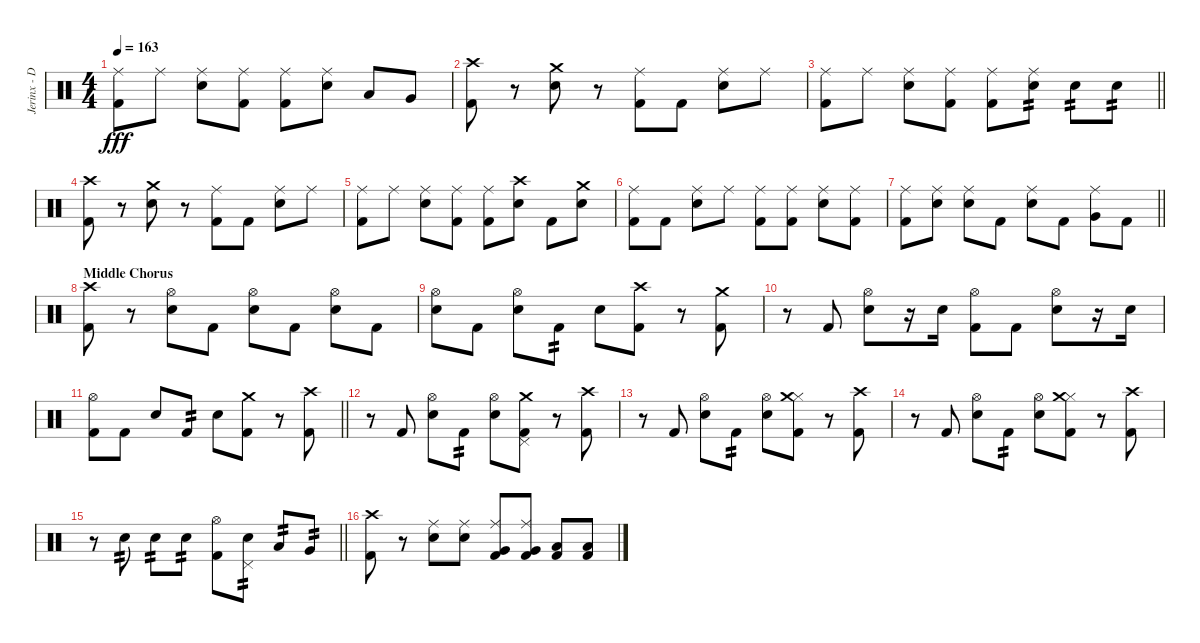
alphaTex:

\track ("Jerinx - Drum" "Jerinx - D") {instrument percussion}
\staff {score}
\articulation defaults
\ts (4 4)
\tempo 163
\clef neutral
\ks c
("Kick (hit) 2" "Ride (middle)").8{dy fff} "Ride (middle)".8 ("Snare (hit) 2" "Ride (middle)").8 ("Kick (hit) 2" "Ride (middle)").8 ("Kick (hit) 2" "Ride (middle)").8 ("Snare (hit) 2" "Ride (middle)").8 "Low Tom (hit)".8 "Very Low Tom (hit)".8 |
("Kick (hit) 2" "Crash high (hit)").8 r.8 ("Snare (hit) 2" "Crash medium (hit)").8 r.8 ("Kick (hit) 2" "Ride (middle)").8 "Kick (hit) 2".8 ("Snare (hit) 2" "Ride (middle)").8 "Ride (middle)".8 |
\barLineRight lightlight
("Kick (hit) 2" "Ride (middle)").8 "Ride (middle)".8 ("Snare (hit) 2" "Ride (middle)").8 ("Kick (hit) 2" "Ride (middle)").8 ("Kick (hit) 2" "Ride (middle)").8 ("Snare (hit) 2" "Ride (middle)").8{tp 2} "Snare (hit) 2".8{tp 2} "Snare (hit) 2".8{tp 2} |
("Kick (hit) 2" "Crash high (hit)").8 r.8 ("Snare (hit) 2" "Crash medium (hit)").8 r.8 ("Kick (hit) 2" "Ride (middle)").8 "Kick (hit) 2".8 ("Snare (hit) 2" "Ride (middle)").8 "Ride (middle)".8 |
("Kick (hit) 2" "Ride (middle)").8 "Ride (middle)".8 ("Snare (hit) 2" "Ride (middle)").8 ("Kick (hit) 2" "Ride (middle)").8 ("Kick (hit) 2" "Ride (middle)").8 ("Snare (hit) 2" "Crash high (hit)").8 "Kick (hit) 2".8 ("Snare (hit) 2" "Crash medium (hit)").8 |
("Kick (hit) 2" "Ride (middle)").8 "Kick (hit) 2".8 ("Snare (hit) 2" "Ride (middle)").8 "Ride (middle)".8 ("Kick (hit) 2" "Ride (middle)").8 ("Kick (hit) 2" "Ride (middle)").8 ("Snare (hit) 2" "Ride (middle)").8 ("Kick (hit) 2" "Ride (middle)").8 |
\barLineRight lightlight
("Kick (hit) 2" "Ride (middle)").8 ("Snare (hit) 2" "Ride (middle)").8 ("Snare (hit) 2" "Ride (middle)").8 "Kick (hit) 2".8 ("Snare (hit) 2" "Ride (middle)").8 "Kick (hit) 2".8 ("Very Low Tom (hit)" "Ride (middle)").8 "Kick (hit) 2".8 |
\section ("" "Middle Chorus")
("Kick (hit) 2" "Crash high (hit)").8 r.8 ("Hi-Hat (open)" "Snare (hit) 2").8 "Kick (hit) 2".8 ("Hi-Hat (open)" "Snare (hit) 2").8 "Kick (hit) 2".8 ("Hi-Hat (open)" "Snare (hit) 2").8 "Kick (hit) 2".8 |
("Hi-Hat (open)" "Snare (hit) 2").8 "Kick (hit) 2".8 ("Hi-Hat (open)" "Snare (hit) 2").8 "Kick (hit) 2".8{tp 2} "Snare (hit) 2".8 ("Kick (hit) 2" "Crash high (hit)").8 r.8 ("Kick (hit) 2" "Crash medium (hit)").8 |
r.8 "Kick (hit) 2".8 ("Hi-Hat (open)" "Snare (hit) 2").8 r.16 "Snare (hit) 2".16 ("Hi-Hat (open)" "Kick (hit) 2").8 "Kick (hit) 2".8 ("Hi-Hat (open)" "Snare (hit) 2").8 r.16 "Snare (hit) 2".16 |
\barLineRight lightlight
("Hi-Hat (open)" "Kick (hit) 2").8 "Kick (hit) 2".8 "Snare (hit) 2".8 "Kick (hit) 2".8{tp 2} "Snare (hit) 2".8 ("Kick (hit) 2" "Crash medium (hit)").8 r.8 ("Kick (hit) 2" "Crash high (hit)").8 |
r.8 "Kick (hit) 2".8 ("Hi-Hat (open)" "Snare (hit) 2").8 "Kick (hit) 2".8{tp 2} ("Hi-Hat (open)" "Snare (hit) 2").8 ("Pedal Hi-Hat (hit)" "Kick (hit) 2" "Crash medium (hit)").8 r.8 ("Kick (hit) 2" "Crash high (hit)").8 |
r.8 "Kick (hit) 2".8 ("Hi-Hat (open)" "Snare (hit) 2").8 "Kick (hit) 2".8{tp 2} ("Hi-Hat (open)" "Snare (hit) 2").8 ("Hi-Hat (closed)" "Kick (hit) 2" "Crash medium (hit)").8 r.8 ("Kick (hit) 2" "Crash high (hit)").8 |
r.8 "Kick (hit) 2".8 ("Hi-Hat (open)" "Snare (hit) 2").8 "Kick (hit) 2".8{tp 2} ("Hi-Hat (open)" "Snare (hit) 2").8 ("Hi-Hat (closed)" "Kick (hit) 2" "Crash medium (hit)").8 r.8 ("Kick (hit) 2" "Crash high (hit)").8 |
\barLineRight lightlight
r.8 "Snare (hit) 2".8{tp 2} "Snare (hit) 2".8{tp 2} "Snare (hit) 2".8{tp 2} ("Hi-Hat (open)" "Kick (hit) 2").8 ("Pedal Hi-Hat (hit)" "Snare (hit) 2").8{tp 2} "Low Tom (hit)".8{tp 2} "Very Low Tom (hit)".8{tp 2} |
("Kick (hit) 2" "Crash high (hit)").8 r.8 ("Snare (hit) 2" "Ride (middle)").8 ("Snare (hit) 2" "Ride (middle)").8 ("Kick (hit) 2" "Very Low Tom (hit)" "Ride (middle)").8 ("Kick (hit) 2" "Very Low Tom (hit)" "Ride (middle)").8 ("Kick (hit) 2" "Low Tom (hit)").8 ("Kick (hit) 2" "Low Tom (hit)").8
